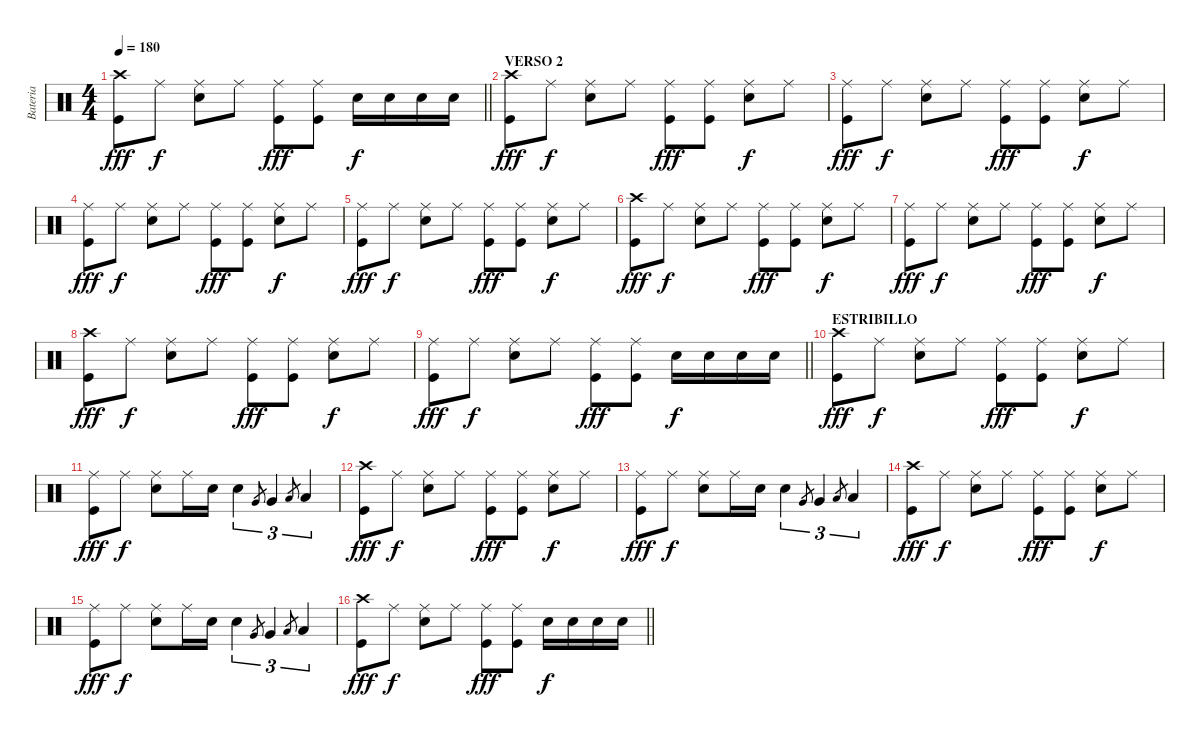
\track ("Bateria" "Bateria") {instrument percussion}
\staff {score}
\articulation defaults
\ts (4 4)
\tempo 180
\clef neutral
\barLineRight lightlight
\ks c
("Crash high (hit)" "Kick (hit)").8{dy fff} "Ride (middle)".8{dy f} ("Ride (middle)" "Snare (hit) 2").8 "Ride (middle)".8 ("Ride (middle)" "Kick (hit)").8{dy fff} ("Ride (middle)" "Kick (hit)").8 "Snare (hit) 2".16{dy f} "Snare (hit) 2".16 "Snare (hit) 2".16 "Snare (hit) 2".16 |
\section ("" "VERSO 2")
("Crash high (hit)" "Kick (hit)").8{dy fff} "Ride (middle)".8{dy f} ("Ride (middle)" "Snare (hit) 2").8 "Ride (middle)".8 ("Ride (middle)" "Kick (hit)").8{dy fff} ("Ride (middle)" "Kick (hit)").8 ("Ride (middle)" "Snare (hit) 2").8{dy f} "Ride (middle)".8 |
("Ride (middle)" "Kick (hit)").8{dy fff} "Ride (middle)".8{dy f} ("Ride (middle)" "Snare (hit) 2").8 "Ride (middle)".8 ("Ride (middle)" "Kick (hit)").8{dy fff} ("Ride (middle)" "Kick (hit)").8 ("Ride (middle)" "Snare (hit) 2").8{dy f} "Ride (middle)".8 |
("Ride (middle)" "Kick (hit)").8{dy fff} "Ride (middle)".8{dy f} ("Ride (middle)" "Snare (hit) 2").8 "Ride (middle)".8 ("Ride (middle)" "Kick (hit)").8{dy fff} ("Ride (middle)" "Kick (hit)").8 ("Ride (middle)" "Snare (hit) 2").8{dy f} "Ride (middle)".8 |
("Ride (middle)" "Kick (hit)").8{dy fff} "Ride (middle)".8{dy f} ("Ride (middle)" "Snare (hit) 2").8 "Ride (middle)".8 ("Ride (middle)" "Kick (hit)").8{dy fff} ("Ride (middle)" "Kick (hit)").8 ("Ride (middle)" "Snare (hit) 2").8{dy f} "Ride (middle)".8 |
("Crash high (hit)" "Kick (hit)").8{dy fff} "Ride (middle)".8{dy f} ("Ride (middle)" "Snare (hit) 2").8 "Ride (middle)".8 ("Ride (middle)" "Kick (hit)").8{dy fff} ("Ride (middle)" "Kick (hit)").8 ("Ride (middle)" "Snare (hit) 2").8{dy f} "Ride (middle)".8 |
("Ride (middle)" "Kick (hit)").8{dy fff} "Ride (middle)".8{dy f} ("Ride (middle)" "Snare (hit) 2").8 "Ride (middle)".8 ("Ride (middle)" "Kick (hit)").8{dy fff} ("Ride (middle)" "Kick (hit)").8 ("Ride (middle)" "Snare (hit) 2").8{dy f} "Ride (middle)".8 |
("Crash high (hit)" "Kick (hit)").8{dy fff} "Ride (middle)".8{dy f} ("Ride (middle)" "Snare (hit) 2").8 "Ride (middle)".8 ("Ride (middle)" "Kick (hit)").8{dy fff} ("Ride (middle)" "Kick (hit)").8 ("Ride (middle)" "Snare (hit) 2").8{dy f} "Ride (middle)".8 |
\barLineRight lightlight
("Ride (middle)" "Kick (hit)").8{dy fff} "Ride (middle)".8{dy f} ("Ride (middle)" "Snare (hit) 2").8 "Ride (middle)".8 ("Ride (middle)" "Kick (hit)").8{dy fff} ("Ride (middle)" "Kick (hit)").8 "Snare (hit) 2".16{dy f} "Snare (hit) 2".16 "Snare (hit) 2".16 "Snare (hit) 2".16 |
\section ("" "ESTRIBILLO")
("Crash high (hit)" "Kick (hit)").8{dy fff} "Ride (middle)".8{dy f} ("Ride (middle)" "Snare (hit) 2").8 "Ride (middle)".8 ("Ride (middle)" "Kick (hit)").8{dy fff} ("Ride (middle)" "Kick (hit)").8 ("Ride (middle)" "Snare (hit) 2").8{dy f} "Ride (middle)".8 |
("Ride (middle)" "Kick (hit)").8{dy fff} "Ride (middle)".8{dy f} ("Ride (middle)" "Snare (hit) 2").8 "Ride (middle)".16 "Snare (hit) 2".16 "Snare (hit) 2".4{tu (3 2)} "Very Low Tom (hit)".8{gr} "Very Low Tom (hit)".4{tu (3 2)} "Low Tom (hit)".8{gr} "Low Tom (hit)".4{tu (3 2)} |
("Crash high (hit)" "Kick (hit)").8{dy fff} "Ride (middle)".8{dy f} ("Ride (middle)" "Snare (hit) 2").8 "Ride (middle)".8 ("Ride (middle)" "Kick (hit)").8{dy fff} ("Ride (middle)" "Kick (hit)").8 ("Ride (middle)" "Snare (hit) 2").8{dy f} "Ride (middle)".8 |
("Ride (middle)" "Kick (hit)").8{dy fff} "Ride (middle)".8{dy f} ("Ride (middle)" "Snare (hit) 2").8 "Ride (middle)".16 "Snare (hit) 2".16 "Snare (hit) 2".4{tu (3 2)} "Very Low Tom (hit)".8{gr} "Very Low Tom (hit)".4{tu (3 2)} "Low Tom (hit)".8{gr} "Low Tom (hit)".4{tu (3 2)} |
("Crash high (hit)" "Kick (hit)").8{dy fff} "Ride (middle)".8{dy f} ("Ride (middle)" "Snare (hit) 2").8 "Ride (middle)".8 ("Ride (middle)" "Kick (hit)").8{dy fff} ("Ride (middle)" "Kick (hit)").8 ("Ride (middle)" "Snare (hit) 2").8{dy f} "Ride (middle)".8 |
("Ride (middle)" "Kick (hit)").8{dy fff} "Ride (middle)".8{dy f} ("Ride (middle)" "Snare (hit) 2").8 "Ride (middle)".16 "Snare (hit) 2".16 "Snare (hit) 2".4{tu (3 2)} "Very Low Tom (hit)".8{gr} "Very Low Tom (hit)".4{tu (3 2)} "Low Tom (hit)".8{gr} "Low Tom (hit)".4{tu (3 2)} |
\barLineRight lightlight
("Crash high (hit)" "Kick (hit)").8{dy fff} "Ride (middle)".8{dy f} ("Ride (middle)" "Snare (hit) 2").8 "Ride (middle)".8 ("Ride (middle)" "Kick (hit)").8{dy fff} ("Ride (middle)" "Kick (hit)").8 "Snare (hit) 2".16{dy f} "Snare (hit) 2".16 "Snare (hit) 2".16 "Snare (hit) 2".16
